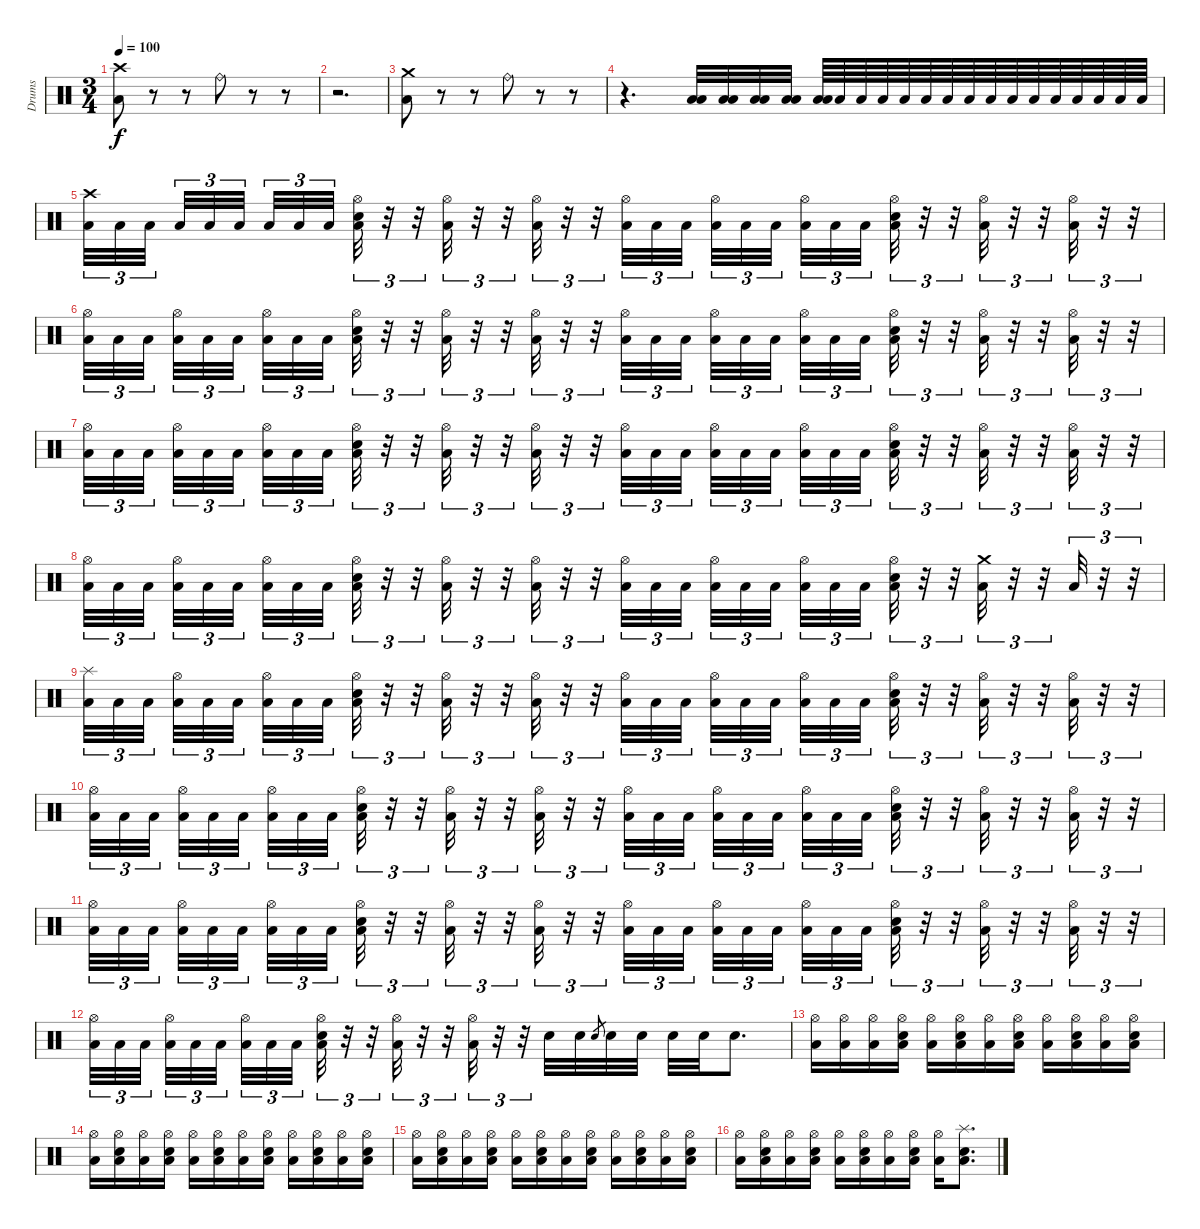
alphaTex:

\track ("Drums" "Drums") {instrument percussion}
\staff {score}
\articulation defaults
\ts (3 4)
\tempo 100
\clef neutral
\ks c
("Crash high (hit)" "Low Floor Tom (hit)").8{dy f} r.8 r.8 "Ride (bell)".8 r.8 r.8 |
r.2{d} |
("Crash medium (hit)" "Low Floor Tom (hit)").8 r.8 r.8 "Ride (bell)".8 r.8 r.8 |
r.4{d} ("Low Tom (hit)" "Low Floor Tom (hit)").32 ("Low Tom (hit)" "Low Floor Tom (hit)").32 ("Low Tom (hit)" "Low Floor Tom (hit)").32 ("Low Tom (hit)" "Low Floor Tom (hit)").32 ("Low Tom (hit)" "Low Floor Tom (hit)").64 "Low Floor Tom (hit)".64 "Low Floor Tom (hit)".64 "Low Floor Tom (hit)".64 "Low Floor Tom (hit)".64 "Low Floor Tom (hit)".64 "Low Floor Tom (hit)".64 "Low Floor Tom (hit)".64 "Low Floor Tom (hit)".64 "Low Floor Tom (hit)".64 "Low Floor Tom (hit)".64 "Low Floor Tom (hit)".64 "Low Floor Tom (hit)".64 "Low Floor Tom (hit)".64 "Low Floor Tom (hit)".64 "Low Floor Tom (hit)".64 |
("Crash high (hit)" "Low Floor Tom (hit)").32{tu (3 2)} "Low Floor Tom (hit)".32{tu (3 2)} "Low Floor Tom (hit)".32{tu (3 2) beam splitsecondary} "Low Floor Tom (hit)".32{tu (3 2)} "Low Floor Tom (hit)".32{tu (3 2)} "Low Floor Tom (hit)".32{tu (3 2) beam splitsecondary} "Low Floor Tom (hit)".32{tu (3 2)} "Low Floor Tom (hit)".32{tu (3 2)} "Low Floor Tom (hit)".32{tu (3 2) beam splitsecondary} ("Hi-Hat (open)" "Electric Snare (hit)" "Low Floor Tom (hit)").32{tu (3 2)} r.32{tu (3 2)} r.32{tu (3 2)} ("Hi-Hat (open)" "Low Floor Tom (hit)").32{tu (3 2)} r.32{tu (3 2)} r.32{tu (3 2)} ("Hi-Hat (open)" "Low Floor Tom (hit)").32{tu (3 2)} r.32{tu (3 2)} r.32{tu (3 2)} ("Hi-Hat (open)" "Low Floor Tom (hit)").32{tu (3 2)} "Low Floor Tom (hit)".32{tu (3 2)} "Low Floor Tom (hit)".32{tu (3 2) beam splitsecondary} ("Hi-Hat (open)" "Low Floor Tom (hit)").32{tu (3 2)} "Low Floor Tom (hit)".32{tu (3 2)} "Low Floor Tom (hit)".32{tu (3 2)} ("Hi-Hat (open)" "Low Floor Tom (hit)").32{tu (3 2)} "Low Floor Tom (hit)".32{tu (3 2)} "Low Floor Tom (hit)".32{tu (3 2) beam splitsecondary} ("Hi-Hat (open)" "Electric Snare (hit)" "Low Floor Tom (hit)").32{tu (3 2)} r.32{tu (3 2)} r.32{tu (3 2)} ("Hi-Hat (open)" "Low Floor Tom (hit)").32{tu (3 2)} r.32{tu (3 2)} r.32{tu (3 2)} ("Hi-Hat (open)" "Low Floor Tom (hit)").32{tu (3 2)} r.32{tu (3 2)} r.32{tu (3 2)} |
("Hi-Hat (open)" "Low Floor Tom (hit)").32{tu (3 2)} "Low Floor Tom (hit)".32{tu (3 2)} "Low Floor Tom (hit)".32{tu (3 2) beam splitsecondary} ("Hi-Hat (open)" "Low Floor Tom (hit)").32{tu (3 2)} "Low Floor Tom (hit)".32{tu (3 2)} "Low Floor Tom (hit)".32{tu (3 2) beam splitsecondary} ("Hi-Hat (open)" "Low Floor Tom (hit)").32{tu (3 2)} "Low Floor Tom (hit)".32{tu (3 2)} "Low Floor Tom (hit)".32{tu (3 2) beam splitsecondary} ("Hi-Hat (open)" "Electric Snare (hit)" "Low Floor Tom (hit)").32{tu (3 2)} r.32{tu (3 2)} r.32{tu (3 2)} ("Hi-Hat (open)" "Low Floor Tom (hit)").32{tu (3 2)} r.32{tu (3 2)} r.32{tu (3 2)} ("Hi-Hat (open)" "Low Floor Tom (hit)").32{tu (3 2)} r.32{tu (3 2)} r.32{tu (3 2)} ("Hi-Hat (open)" "Low Floor Tom (hit)").32{tu (3 2)} "Low Floor Tom (hit)".32{tu (3 2)} "Low Floor Tom (hit)".32{tu (3 2) beam splitsecondary} ("Hi-Hat (open)" "Low Floor Tom (hit)").32{tu (3 2)} "Low Floor Tom (hit)".32{tu (3 2)} "Low Floor Tom (hit)".32{tu (3 2)} ("Hi-Hat (open)" "Low Floor Tom (hit)").32{tu (3 2)} "Low Floor Tom (hit)".32{tu (3 2)} "Low Floor Tom (hit)".32{tu (3 2) beam splitsecondary} ("Hi-Hat (open)" "Electric Snare (hit)" "Low Floor Tom (hit)").32{tu (3 2)} r.32{tu (3 2)} r.32{tu (3 2)} ("Hi-Hat (open)" "Low Floor Tom (hit)").32{tu (3 2)} r.32{tu (3 2)} r.32{tu (3 2)} ("Hi-Hat (open)" "Low Floor Tom (hit)").32{tu (3 2)} r.32{tu (3 2)} r.32{tu (3 2)} |
("Hi-Hat (open)" "Low Floor Tom (hit)").32{tu (3 2)} "Low Floor Tom (hit)".32{tu (3 2)} "Low Floor Tom (hit)".32{tu (3 2) beam splitsecondary} ("Hi-Hat (open)" "Low Floor Tom (hit)").32{tu (3 2)} "Low Floor Tom (hit)".32{tu (3 2)} "Low Floor Tom (hit)".32{tu (3 2) beam splitsecondary} ("Hi-Hat (open)" "Low Floor Tom (hit)").32{tu (3 2)} "Low Floor Tom (hit)".32{tu (3 2)} "Low Floor Tom (hit)".32{tu (3 2) beam splitsecondary} ("Hi-Hat (open)" "Electric Snare (hit)" "Low Floor Tom (hit)").32{tu (3 2)} r.32{tu (3 2)} r.32{tu (3 2)} ("Hi-Hat (open)" "Low Floor Tom (hit)").32{tu (3 2)} r.32{tu (3 2)} r.32{tu (3 2)} ("Hi-Hat (open)" "Low Floor Tom (hit)").32{tu (3 2)} r.32{tu (3 2)} r.32{tu (3 2)} ("Hi-Hat (open)" "Low Floor Tom (hit)").32{tu (3 2)} "Low Floor Tom (hit)".32{tu (3 2)} "Low Floor Tom (hit)".32{tu (3 2) beam splitsecondary} ("Hi-Hat (open)" "Low Floor Tom (hit)").32{tu (3 2)} "Low Floor Tom (hit)".32{tu (3 2)} "Low Floor Tom (hit)".32{tu (3 2)} ("Hi-Hat (open)" "Low Floor Tom (hit)").32{tu (3 2)} "Low Floor Tom (hit)".32{tu (3 2)} "Low Floor Tom (hit)".32{tu (3 2) beam splitsecondary} ("Hi-Hat (open)" "Electric Snare (hit)" "Low Floor Tom (hit)").32{tu (3 2)} r.32{tu (3 2)} r.32{tu (3 2)} ("Hi-Hat (open)" "Low Floor Tom (hit)").32{tu (3 2)} r.32{tu (3 2)} r.32{tu (3 2)} ("Hi-Hat (open)" "Low Floor Tom (hit)").32{tu (3 2)} r.32{tu (3 2)} r.32{tu (3 2)} |
("Hi-Hat (open)" "Low Floor Tom (hit)").32{tu (3 2)} "Low Floor Tom (hit)".32{tu (3 2)} "Low Floor Tom (hit)".32{tu (3 2) beam splitsecondary} ("Hi-Hat (open)" "Low Floor Tom (hit)").32{tu (3 2)} "Low Floor Tom (hit)".32{tu (3 2)} "Low Floor Tom (hit)".32{tu (3 2) beam splitsecondary} ("Hi-Hat (open)" "Low Floor Tom (hit)").32{tu (3 2)} "Low Floor Tom (hit)".32{tu (3 2)} "Low Floor Tom (hit)".32{tu (3 2) beam splitsecondary} ("Hi-Hat (open)" "Electric Snare (hit)" "Low Floor Tom (hit)").32{tu (3 2)} r.32{tu (3 2)} r.32{tu (3 2)} ("Hi-Hat (open)" "Low Floor Tom (hit)").32{tu (3 2)} r.32{tu (3 2)} r.32{tu (3 2)} ("Hi-Hat (open)" "Low Floor Tom (hit)").32{tu (3 2)} r.32{tu (3 2)} r.32{tu (3 2)} ("Hi-Hat (open)" "Low Floor Tom (hit)").32{tu (3 2)} "Low Floor Tom (hit)".32{tu (3 2)} "Low Floor Tom (hit)".32{tu (3 2) beam splitsecondary} ("Hi-Hat (open)" "Low Floor Tom (hit)").32{tu (3 2)} "Low Floor Tom (hit)".32{tu (3 2)} "Low Floor Tom (hit)".32{tu (3 2)} ("Hi-Hat (open)" "Low Floor Tom (hit)").32{tu (3 2)} "Low Floor Tom (hit)".32{tu (3 2)} "Low Floor Tom (hit)".32{tu (3 2) beam splitsecondary} ("Hi-Hat (open)" "Electric Snare (hit)" "Low Floor Tom (hit)").32{tu (3 2)} r.32{tu (3 2)} r.32{tu (3 2)} ("Crash medium (hit)" "Low Floor Tom (hit)").32{tu (3 2)} r.32{tu (3 2)} r.32{tu (3 2)} "Low Floor Tom (hit)".32{tu (3 2)} r.32{tu (3 2)} r.32{tu (3 2)} |
("Splash (hit)" "Low Floor Tom (hit)").32{tu (3 2)} "Low Floor Tom (hit)".32{tu (3 2)} "Low Floor Tom (hit)".32{tu (3 2) beam splitsecondary} ("Hi-Hat (open)" "Low Floor Tom (hit)").32{tu (3 2)} "Low Floor Tom (hit)".32{tu (3 2)} "Low Floor Tom (hit)".32{tu (3 2) beam splitsecondary} ("Hi-Hat (open)" "Low Floor Tom (hit)").32{tu (3 2)} "Low Floor Tom (hit)".32{tu (3 2)} "Low Floor Tom (hit)".32{tu (3 2) beam splitsecondary} ("Hi-Hat (open)" "Electric Snare (hit)" "Low Floor Tom (hit)").32{tu (3 2)} r.32{tu (3 2)} r.32{tu (3 2)} ("Hi-Hat (open)" "Low Floor Tom (hit)").32{tu (3 2)} r.32{tu (3 2)} r.32{tu (3 2)} ("Hi-Hat (open)" "Low Floor Tom (hit)").32{tu (3 2)} r.32{tu (3 2)} r.32{tu (3 2)} ("Hi-Hat (open)" "Low Floor Tom (hit)").32{tu (3 2)} "Low Floor Tom (hit)".32{tu (3 2)} "Low Floor Tom (hit)".32{tu (3 2) beam splitsecondary} ("Hi-Hat (open)" "Low Floor Tom (hit)").32{tu (3 2)} "Low Floor Tom (hit)".32{tu (3 2)} "Low Floor Tom (hit)".32{tu (3 2)} ("Hi-Hat (open)" "Low Floor Tom (hit)").32{tu (3 2)} "Low Floor Tom (hit)".32{tu (3 2)} "Low Floor Tom (hit)".32{tu (3 2) beam splitsecondary} ("Hi-Hat (open)" "Electric Snare (hit)" "Low Floor Tom (hit)").32{tu (3 2)} r.32{tu (3 2)} r.32{tu (3 2)} ("Hi-Hat (open)" "Low Floor Tom (hit)").32{tu (3 2)} r.32{tu (3 2)} r.32{tu (3 2)} ("Hi-Hat (open)" "Low Floor Tom (hit)").32{tu (3 2)} r.32{tu (3 2)} r.32{tu (3 2)} |
("Hi-Hat (open)" "Low Floor Tom (hit)").32{tu (3 2)} "Low Floor Tom (hit)".32{tu (3 2)} "Low Floor Tom (hit)".32{tu (3 2) beam splitsecondary} ("Hi-Hat (open)" "Low Floor Tom (hit)").32{tu (3 2)} "Low Floor Tom (hit)".32{tu (3 2)} "Low Floor Tom (hit)".32{tu (3 2) beam splitsecondary} ("Hi-Hat (open)" "Low Floor Tom (hit)").32{tu (3 2)} "Low Floor Tom (hit)".32{tu (3 2)} "Low Floor Tom (hit)".32{tu (3 2) beam splitsecondary} ("Hi-Hat (open)" "Electric Snare (hit)" "Low Floor Tom (hit)").32{tu (3 2)} r.32{tu (3 2)} r.32{tu (3 2)} ("Hi-Hat (open)" "Low Floor Tom (hit)").32{tu (3 2)} r.32{tu (3 2)} r.32{tu (3 2)} ("Hi-Hat (open)" "Low Floor Tom (hit)").32{tu (3 2)} r.32{tu (3 2)} r.32{tu (3 2)} ("Hi-Hat (open)" "Low Floor Tom (hit)").32{tu (3 2)} "Low Floor Tom (hit)".32{tu (3 2)} "Low Floor Tom (hit)".32{tu (3 2) beam splitsecondary} ("Hi-Hat (open)" "Low Floor Tom (hit)").32{tu (3 2)} "Low Floor Tom (hit)".32{tu (3 2)} "Low Floor Tom (hit)".32{tu (3 2)} ("Hi-Hat (open)" "Low Floor Tom (hit)").32{tu (3 2)} "Low Floor Tom (hit)".32{tu (3 2)} "Low Floor Tom (hit)".32{tu (3 2) beam splitsecondary} ("Hi-Hat (open)" "Electric Snare (hit)" "Low Floor Tom (hit)").32{tu (3 2)} r.32{tu (3 2)} r.32{tu (3 2)} ("Hi-Hat (open)" "Low Floor Tom (hit)").32{tu (3 2)} r.32{tu (3 2)} r.32{tu (3 2)} ("Hi-Hat (open)" "Low Floor Tom (hit)").32{tu (3 2)} r.32{tu (3 2)} r.32{tu (3 2)} |
("Hi-Hat (open)" "Low Floor Tom (hit)").32{tu (3 2)} "Low Floor Tom (hit)".32{tu (3 2)} "Low Floor Tom (hit)".32{tu (3 2) beam splitsecondary} ("Hi-Hat (open)" "Low Floor Tom (hit)").32{tu (3 2)} "Low Floor Tom (hit)".32{tu (3 2)} "Low Floor Tom (hit)".32{tu (3 2) beam splitsecondary} ("Hi-Hat (open)" "Low Floor Tom (hit)").32{tu (3 2)} "Low Floor Tom (hit)".32{tu (3 2)} "Low Floor Tom (hit)".32{tu (3 2) beam splitsecondary} ("Hi-Hat (open)" "Electric Snare (hit)" "Low Floor Tom (hit)").32{tu (3 2)} r.32{tu (3 2)} r.32{tu (3 2)} ("Hi-Hat (open)" "Low Floor Tom (hit)").32{tu (3 2)} r.32{tu (3 2)} r.32{tu (3 2)} ("Hi-Hat (open)" "Low Floor Tom (hit)").32{tu (3 2)} r.32{tu (3 2)} r.32{tu (3 2)} ("Hi-Hat (open)" "Low Floor Tom (hit)").32{tu (3 2)} "Low Floor Tom (hit)".32{tu (3 2)} "Low Floor Tom (hit)".32{tu (3 2) beam splitsecondary} ("Hi-Hat (open)" "Low Floor Tom (hit)").32{tu (3 2)} "Low Floor Tom (hit)".32{tu (3 2)} "Low Floor Tom (hit)".32{tu (3 2)} ("Hi-Hat (open)" "Low Floor Tom (hit)").32{tu (3 2)} "Low Floor Tom (hit)".32{tu (3 2)} "Low Floor Tom (hit)".32{tu (3 2) beam splitsecondary} ("Hi-Hat (open)" "Electric Snare (hit)" "Low Floor Tom (hit)").32{tu (3 2)} r.32{tu (3 2)} r.32{tu (3 2)} ("Hi-Hat (open)" "Low Floor Tom (hit)").32{tu (3 2)} r.32{tu (3 2)} r.32{tu (3 2)} ("Hi-Hat (open)" "Low Floor Tom (hit)").32{tu (3 2)} r.32{tu (3 2)} r.32{tu (3 2)} |
("Hi-Hat (open)" "Low Floor Tom (hit)").32{tu (3 2)} "Low Floor Tom (hit)".32{tu (3 2)} "Low Floor Tom (hit)".32{tu (3 2) beam splitsecondary} ("Hi-Hat (open)" "Low Floor Tom (hit)").32{tu (3 2)} "Low Floor Tom (hit)".32{tu (3 2)} "Low Floor Tom (hit)".32{tu (3 2) beam splitsecondary} ("Hi-Hat (open)" "Low Floor Tom (hit)").32{tu (3 2)} "Low Floor Tom (hit)".32{tu (3 2)} "Low Floor Tom (hit)".32{tu (3 2) beam splitsecondary} ("Hi-Hat (open)" "Electric Snare (hit)" "Low Floor Tom (hit)").32{tu (3 2)} r.32{tu (3 2)} r.32{tu (3 2)} ("Hi-Hat (open)" "Low Floor Tom (hit)").32{tu (3 2)} r.32{tu (3 2)} r.32{tu (3 2)} ("Hi-Hat (open)" "Low Floor Tom (hit)").32{tu (3 2)} r.32{tu (3 2)} r.32{tu (3 2)} "Electric Snare (hit)".32 "Electric Snare (hit)".32 "Electric Snare (hit)".8{gr} "Electric Snare (hit)".32 "Electric Snare (hit)".32 "Electric Snare (hit)".32 "Electric Snare (hit)".32 "Electric Snare (hit)".8{d} |
("Hi-Hat (open)" "Low Floor Tom (hit)").16 ("Hi-Hat (open)" "Low Floor Tom (hit)").16 ("Hi-Hat (open)" "Low Floor Tom (hit)").16 ("Hi-Hat (open)" "Electric Snare (hit)" "Low Floor Tom (hit)").16 ("Hi-Hat (open)" "Low Floor Tom (hit)").16 ("Hi-Hat (open)" "Electric Snare (hit)" "Low Floor Tom (hit)").16 ("Hi-Hat (open)" "Low Floor Tom (hit)").16 ("Hi-Hat (open)" "Electric Snare (hit)" "Low Floor Tom (hit)").16 ("Hi-Hat (open)" "Low Floor Tom (hit)").16 ("Hi-Hat (open)" "Electric Snare (hit)" "Low Floor Tom (hit)").16 ("Hi-Hat (open)" "Low Floor Tom (hit)").16 ("Hi-Hat (open)" "Electric Snare (hit)" "Low Floor Tom (hit)").16 |
("Hi-Hat (open)" "Low Floor Tom (hit)").16 ("Hi-Hat (open)" "Electric Snare (hit)" "Low Floor Tom (hit)").16 ("Hi-Hat (open)" "Low Floor Tom (hit)").16 ("Hi-Hat (open)" "Electric Snare (hit)" "Low Floor Tom (hit)").16 ("Hi-Hat (open)" "Low Floor Tom (hit)").16 ("Hi-Hat (open)" "Electric Snare (hit)" "Low Floor Tom (hit)").16 ("Hi-Hat (open)" "Low Floor Tom (hit)").16 ("Hi-Hat (open)" "Electric Snare (hit)" "Low Floor Tom (hit)").16 ("Hi-Hat (open)" "Low Floor Tom (hit)").16 ("Hi-Hat (open)" "Electric Snare (hit)" "Low Floor Tom (hit)").16 ("Hi-Hat (open)" "Low Floor Tom (hit)").16 ("Hi-Hat (open)" "Electric Snare (hit)" "Low Floor Tom (hit)").16 |
("Hi-Hat (open)" "Low Floor Tom (hit)").16 ("Hi-Hat (open)" "Electric Snare (hit)" "Low Floor Tom (hit)").16 ("Hi-Hat (open)" "Low Floor Tom (hit)").16 ("Hi-Hat (open)" "Electric Snare (hit)" "Low Floor Tom (hit)").16 ("Hi-Hat (open)" "Low Floor Tom (hit)").16 ("Hi-Hat (open)" "Electric Snare (hit)" "Low Floor Tom (hit)").16 ("Hi-Hat (open)" "Low Floor Tom (hit)").16 ("Hi-Hat (open)" "Electric Snare (hit)" "Low Floor Tom (hit)").16 ("Hi-Hat (open)" "Low Floor Tom (hit)").16 ("Hi-Hat (open)" "Electric Snare (hit)" "Low Floor Tom (hit)").16 ("Hi-Hat (open)" "Low Floor Tom (hit)").16 ("Hi-Hat (open)" "Electric Snare (hit)" "Low Floor Tom (hit)").16 |
("Hi-Hat (open)" "Low Floor Tom (hit)").16 ("Hi-Hat (open)" "Electric Snare (hit)" "Low Floor Tom (hit)").16 ("Hi-Hat (open)" "Low Floor Tom (hit)").16 ("Hi-Hat (open)" "Electric Snare (hit)" "Low Floor Tom (hit)").16 ("Hi-Hat (open)" "Low Floor Tom (hit)").16 ("Hi-Hat (open)" "Electric Snare (hit)" "Low Floor Tom (hit)").16 ("Hi-Hat (open)" "Low Floor Tom (hit)").16 ("Hi-Hat (open)" "Electric Snare (hit)" "Low Floor Tom (hit)").16 ("Hi-Hat (open)" "Low Floor Tom (hit)").16 ("Splash (hit)" "Electric Snare (hit)" "Low Floor Tom (hit)").8{d}
